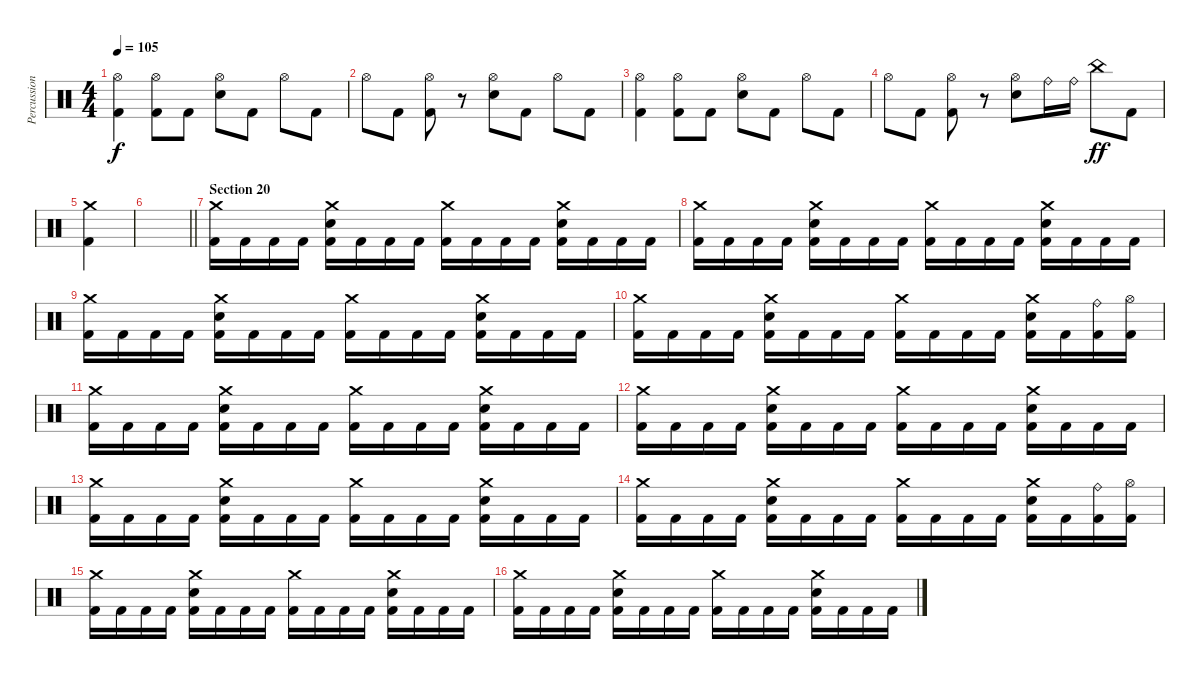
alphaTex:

\track ("Percussion" "Percussion") {instrument percussion}
\staff {score}
\articulation defaults
\ts (4 4)
\tempo 105
\clef neutral
\ks c
("Hi-Hat (open)" "Kick (hit) 2").4{dy f} ("Hi-Hat (open)" "Kick (hit) 2").8 "Kick (hit) 2".8 ("Hi-Hat (open)" "Electric Snare (hit)").8 "Kick (hit) 2".8 "Hi-Hat (open)".8 "Kick (hit) 2".8 |
"Hi-Hat (open)".8 "Kick (hit) 2".8 ("Hi-Hat (open)" "Kick (hit) 2").8 r.8 ("Hi-Hat (open)" "Electric Snare (hit)").8 "Kick (hit) 2".8 "Hi-Hat (open)".8 "Kick (hit) 2".8 |
("Hi-Hat (open)" "Kick (hit) 2").4 ("Hi-Hat (open)" "Kick (hit) 2").8 "Kick (hit) 2".8 ("Hi-Hat (open)" "Electric Snare (hit)").8 "Kick (hit) 2".8 "Hi-Hat (open)".8 "Kick (hit) 2".8 |
"Hi-Hat (open)".8 "Kick (hit) 2".8 ("Hi-Hat (open)" "Kick (hit) 2").8 r.8 ("Hi-Hat (open)" "Electric Snare (hit)").8 "Ride (bell)".16 "Ride (bell)".16 "China (hit)".8{dy ff} "Kick (hit) 2".8 |
("Crash medium (hit)" "Kick (hit) 2").4 |
\barLineRight lightlight
|
\section ("" "Section 20")
("Crash medium (hit)" "Kick (hit) 2").16 "Kick (hit) 2".16 "Kick (hit) 2".16 "Kick (hit) 2".16 ("Crash medium (hit)" "Electric Snare (hit)" "Kick (hit) 2").16 "Kick (hit) 2".16 "Kick (hit) 2".16 "Kick (hit) 2".16 ("Crash medium (hit)" "Kick (hit) 2").16 "Kick (hit) 2".16 "Kick (hit) 2".16 "Kick (hit) 2".16 ("Crash medium (hit)" "Electric Snare (hit)" "Kick (hit) 2").16 "Kick (hit) 2".16 "Kick (hit) 2".16 "Kick (hit) 2".16 |
("Crash medium (hit)" "Kick (hit) 2").16 "Kick (hit) 2".16 "Kick (hit) 2".16 "Kick (hit) 2".16 ("Crash medium (hit)" "Electric Snare (hit)" "Kick (hit) 2").16 "Kick (hit) 2".16 "Kick (hit) 2".16 "Kick (hit) 2".16 ("Crash medium (hit)" "Kick (hit) 2").16 "Kick (hit) 2".16 "Kick (hit) 2".16 "Kick (hit) 2".16 ("Crash medium (hit)" "Electric Snare (hit)" "Kick (hit) 2").16 "Kick (hit) 2".16 "Kick (hit) 2".16 "Kick (hit) 2".16 |
("Crash medium (hit)" "Kick (hit) 2").16 "Kick (hit) 2".16 "Kick (hit) 2".16 "Kick (hit) 2".16 ("Crash medium (hit)" "Electric Snare (hit)" "Kick (hit) 2").16 "Kick (hit) 2".16 "Kick (hit) 2".16 "Kick (hit) 2".16 ("Crash medium (hit)" "Kick (hit) 2").16 "Kick (hit) 2".16 "Kick (hit) 2".16 "Kick (hit) 2".16 ("Crash medium (hit)" "Electric Snare (hit)" "Kick (hit) 2").16 "Kick (hit) 2".16 "Kick (hit) 2".16 "Kick (hit) 2".16 |
("Crash medium (hit)" "Kick (hit) 2").16 "Kick (hit) 2".16 "Kick (hit) 2".16 "Kick (hit) 2".16 ("Crash medium (hit)" "Electric Snare (hit)" "Kick (hit) 2").16 "Kick (hit) 2".16 "Kick (hit) 2".16 "Kick (hit) 2".16 ("Crash medium (hit)" "Kick (hit) 2").16 "Kick (hit) 2".16 "Kick (hit) 2".16 "Kick (hit) 2".16 ("Crash medium (hit)" "Electric Snare (hit)" "Kick (hit) 2").16 "Kick (hit) 2".16 ("Ride (bell)" "Kick (hit) 2").16 ("Hi-Hat (open)" "Kick (hit) 2").16 |
("Crash medium (hit)" "Kick (hit) 2").16 "Kick (hit) 2".16 "Kick (hit) 2".16 "Kick (hit) 2".16 ("Crash medium (hit)" "Electric Snare (hit)" "Kick (hit) 2").16 "Kick (hit) 2".16 "Kick (hit) 2".16 "Kick (hit) 2".16 ("Crash medium (hit)" "Kick (hit) 2").16 "Kick (hit) 2".16 "Kick (hit) 2".16 "Kick (hit) 2".16 ("Crash medium (hit)" "Electric Snare (hit)" "Kick (hit) 2").16 "Kick (hit) 2".16 "Kick (hit) 2".16 "Kick (hit) 2".16 |
("Crash medium (hit)" "Kick (hit) 2").16 "Kick (hit) 2".16 "Kick (hit) 2".16 "Kick (hit) 2".16 ("Crash medium (hit)" "Electric Snare (hit)" "Kick (hit) 2").16 "Kick (hit) 2".16 "Kick (hit) 2".16 "Kick (hit) 2".16 ("Crash medium (hit)" "Kick (hit) 2").16 "Kick (hit) 2".16 "Kick (hit) 2".16 "Kick (hit) 2".16 ("Crash medium (hit)" "Electric Snare (hit)" "Kick (hit) 2").16 "Kick (hit) 2".16 "Kick (hit) 2".16 "Kick (hit) 2".16 |
("Crash medium (hit)" "Kick (hit) 2").16 "Kick (hit) 2".16 "Kick (hit) 2".16 "Kick (hit) 2".16 ("Crash medium (hit)" "Electric Snare (hit)" "Kick (hit) 2").16 "Kick (hit) 2".16 "Kick (hit) 2".16 "Kick (hit) 2".16 ("Crash medium (hit)" "Kick (hit) 2").16 "Kick (hit) 2".16 "Kick (hit) 2".16 "Kick (hit) 2".16 ("Crash medium (hit)" "Electric Snare (hit)" "Kick (hit) 2").16 "Kick (hit) 2".16 "Kick (hit) 2".16 "Kick (hit) 2".16 |
("Crash medium (hit)" "Kick (hit) 2").16 "Kick (hit) 2".16 "Kick (hit) 2".16 "Kick (hit) 2".16 ("Crash medium (hit)" "Electric Snare (hit)" "Kick (hit) 2").16 "Kick (hit) 2".16 "Kick (hit) 2".16 "Kick (hit) 2".16 ("Crash medium (hit)" "Kick (hit) 2").16 "Kick (hit) 2".16 "Kick (hit) 2".16 "Kick (hit) 2".16 ("Crash medium (hit)" "Electric Snare (hit)" "Kick (hit) 2").16 "Kick (hit) 2".16 ("Ride (bell)" "Kick (hit) 2").16 ("Hi-Hat (open)" "Kick (hit) 2").16 |
("Crash medium (hit)" "Kick (hit) 2").16 "Kick (hit) 2".16 "Kick (hit) 2".16 "Kick (hit) 2".16 ("Crash medium (hit)" "Electric Snare (hit)" "Kick (hit) 2").16 "Kick (hit) 2".16 "Kick (hit) 2".16 "Kick (hit) 2".16 ("Crash medium (hit)" "Kick (hit) 2").16 "Kick (hit) 2".16 "Kick (hit) 2".16 "Kick (hit) 2".16 ("Crash medium (hit)" "Electric Snare (hit)" "Kick (hit) 2").16 "Kick (hit) 2".16 "Kick (hit) 2".16 "Kick (hit) 2".16 |
("Crash medium (hit)" "Kick (hit) 2").16 "Kick (hit) 2".16 "Kick (hit) 2".16 "Kick (hit) 2".16 ("Crash medium (hit)" "Electric Snare (hit)" "Kick (hit) 2").16 "Kick (hit) 2".16 "Kick (hit) 2".16 "Kick (hit) 2".16 ("Crash medium (hit)" "Kick (hit) 2").16 "Kick (hit) 2".16 "Kick (hit) 2".16 "Kick (hit) 2".16 ("Crash medium (hit)" "Electric Snare (hit)" "Kick (hit) 2").16 "Kick (hit) 2".16 "Kick (hit) 2".16 "Kick (hit) 2".16
